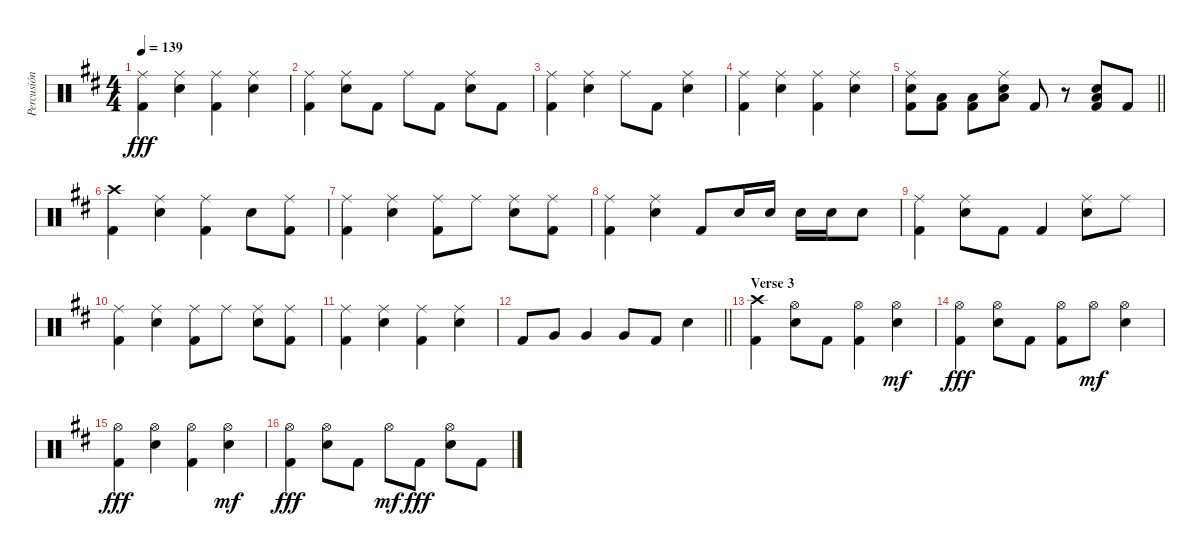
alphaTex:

\track ("Percusión" "Percusión") {instrument percussion}
\staff {score}
\articulation defaults
\ts (4 4)
\tempo 139
\clef neutral
\ks d
("Ride (middle)" "Kick (hit) 2").4{dy fff} ("Ride (middle)" "Electric Snare (hit)").4 ("Ride (middle)" "Kick (hit) 2").4 ("Ride (middle)" "Electric Snare (hit)").4 |
("Ride (middle)" "Kick (hit) 2").4 ("Ride (middle)" "Electric Snare (hit)").8 "Kick (hit) 2".8 "Ride (middle)".8 "Kick (hit) 2".8 ("Ride (middle)" "Electric Snare (hit)").8 "Kick (hit) 2".8 |
("Ride (middle)" "Kick (hit) 2").4 ("Ride (middle)" "Electric Snare (hit)").4 "Ride (middle)".8 "Kick (hit) 2".8 ("Ride (middle)" "Electric Snare (hit)").4 |
("Ride (middle)" "Kick (hit) 2").4 ("Ride (middle)" "Electric Snare (hit)").4 ("Ride (middle)" "Kick (hit) 2").4 ("Ride (middle)" "Electric Snare (hit)").4 |
\barLineRight lightlight
("Ride (middle)" "Electric Snare (hit)" "Kick (hit) 2").8 ("Low Floor Tom (hit)" "Kick (hit) 2").8 ("Low Floor Tom (hit)" "Kick (hit) 2").8 ("Ride (middle)" "Electric Snare (hit)" "Low Floor Tom (hit)").8 "Kick (hit) 2".8 r.8 ("Electric Snare (hit)" "Low Floor Tom (hit)" "Kick (hit) 2").8 "Kick (hit) 2".8 |
("Crash high (hit)" "Kick (hit) 2").4 ("Ride (middle)" "Electric Snare (hit)").4 ("Ride (middle)" "Kick (hit) 2").4 "Electric Snare (hit)".8 ("Ride (middle)" "Kick (hit) 2").8 |
("Ride (middle)" "Kick (hit) 2").4 ("Ride (middle)" "Electric Snare (hit)").4 ("Ride (middle)" "Kick (hit) 2").8 "Ride (middle)".8 ("Ride (middle)" "Electric Snare (hit)").8 ("Ride (middle)" "Kick (hit) 2").8 |
("Ride (middle)" "Kick (hit) 2").4 ("Ride (middle)" "Electric Snare (hit)").4 "Kick (hit) 2".8 "Electric Snare (hit)".16 "Electric Snare (hit)".16 "Electric Snare (hit)".16 "Electric Snare (hit)".16 "Electric Snare (hit)".8 |
("Ride (middle)" "Kick (hit) 2").4 ("Ride (middle)" "Electric Snare (hit)").8 "Kick (hit) 2".8 "Kick (hit) 2".4 ("Ride (middle)" "Electric Snare (hit)").8 "Ride (middle)".8 |
("Ride (middle)" "Kick (hit) 2").4 ("Ride (middle)" "Electric Snare (hit)").4 ("Ride (middle)" "Kick (hit) 2").8 "Ride (middle)".8 ("Ride (middle)" "Electric Snare (hit)").8 ("Ride (middle)" "Kick (hit) 2").8 |
("Ride (middle)" "Kick (hit) 2").4 ("Ride (middle)" "Electric Snare (hit)").4 ("Ride (middle)" "Kick (hit) 2").4 ("Ride (middle)" "Electric Snare (hit)").4 |
\barLineRight lightlight "Kick (hit) 2".8 "Very Low Tom (hit)".8 "Very Low Tom (hit)".4 "Very Low Tom (hit)".8 "Kick (hit) 2".8 "Electric Snare (hit)".4
|
\section ("" "Verse 3")
("Crash high (hit)" "Kick (hit) 2").4 ("Hi-Hat (open)" "Electric Snare (hit)").8 "Kick (hit) 2".8 ("Hi-Hat (open)" "Kick (hit) 2").4 ("Hi-Hat (open)" "Electric Snare (hit)").4{dy mf} |
("Hi-Hat (open)" "Kick (hit) 2").4{dy fff} ("Hi-Hat (open)" "Electric Snare (hit)").8 "Kick (hit) 2".8 ("Hi-Hat (open)" "Kick (hit) 2").8 "Hi-Hat (open)".8{dy mf} ("Hi-Hat (open)" "Electric Snare (hit)").4 |
("Hi-Hat (open)" "Kick (hit) 2").4{dy fff} ("Hi-Hat (open)" "Electric Snare (hit)").4 ("Hi-Hat (open)" "Kick (hit) 2").4 ("Hi-Hat (open)" "Electric Snare (hit)").4{dy mf} |
("Hi-Hat (open)" "Kick (hit) 2").4{dy fff} ("Hi-Hat (open)" "Electric Snare (hit)").8 "Kick (hit) 2".8 "Hi-Hat (open)".8{dy mf} "Kick (hit) 2".8{dy fff} ("Hi-Hat (open)" "Electric Snare (hit)").8 "Kick (hit) 2".8
